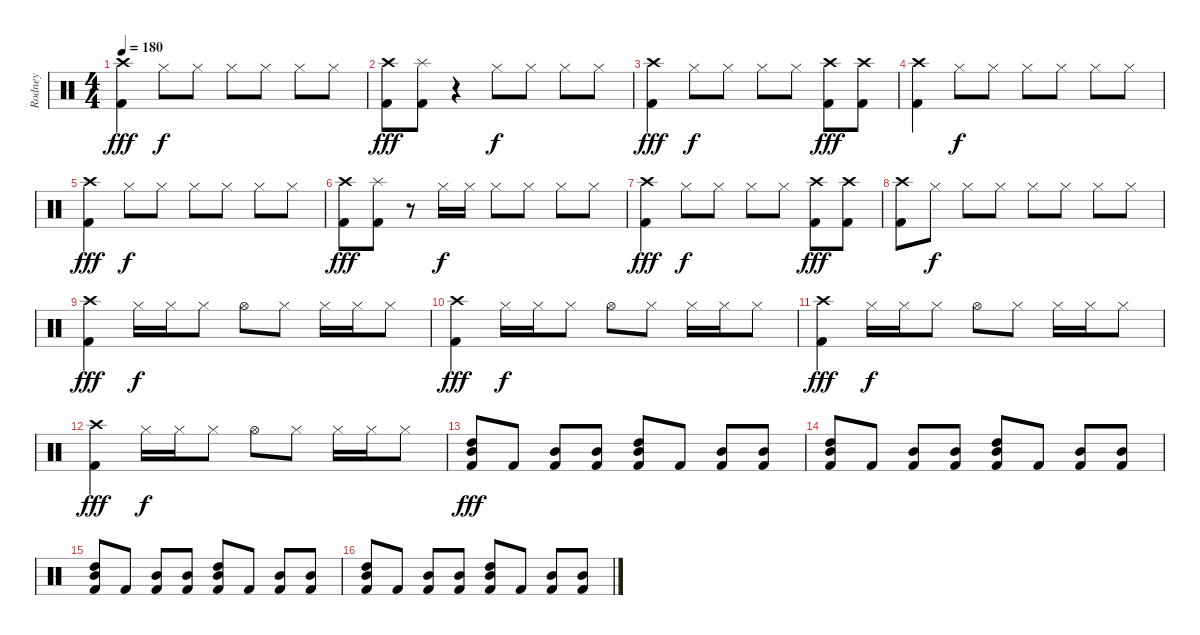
\track ("Rodney" "Rodney") {instrument percussion}
\staff {score}
\articulation defaults
\ts (4 4)
\tempo 180
\clef neutral
\ks c
("Crash high (hit)" "Kick (hit) 2").4{dy fff} "Hi-Hat (closed)".8{dy f} "Hi-Hat (closed)".8 "Hi-Hat (closed)".8 "Hi-Hat (closed)".8 "Hi-Hat (closed)".8 "Hi-Hat (closed)".8 |
("Crash high (hit)" "Kick (hit) 2").8{dy fff} ("Splash (hit)" "Kick (hit) 2").8 r.4 "Hi-Hat (closed)".8{dy f} "Hi-Hat (closed)".8 "Hi-Hat (closed)".8 "Hi-Hat (closed)".8 |
("Crash high (hit)" "Kick (hit) 2").4{dy fff} "Hi-Hat (closed)".8{dy f} "Hi-Hat (closed)".8 "Hi-Hat (closed)".8 "Hi-Hat (closed)".8 ("Crash high (hit)" "Kick (hit) 2").8{dy fff} ("Crash high (hit)" "Kick (hit) 2").8 |
("Crash high (hit)" "Kick (hit) 2").4 "Hi-Hat (closed)".8{dy f} "Hi-Hat (closed)".8 "Hi-Hat (closed)".8 "Hi-Hat (closed)".8 "Hi-Hat (closed)".8 "Hi-Hat (closed)".8 |
("Crash high (hit)" "Kick (hit) 2").4{dy fff} "Hi-Hat (closed)".8{dy f} "Hi-Hat (closed)".8 "Hi-Hat (closed)".8 "Hi-Hat (closed)".8 "Hi-Hat (closed)".8 "Hi-Hat (closed)".8 |
("Crash high (hit)" "Kick (hit) 2").8{dy fff} ("Splash (hit)" "Kick (hit) 2").8 r.8 "Hi-Hat (closed)".16{dy f} "Hi-Hat (closed)".16 "Hi-Hat (closed)".8 "Hi-Hat (closed)".8 "Hi-Hat (closed)".8 "Hi-Hat (closed)".8 |
("Crash high (hit)" "Kick (hit) 2").4{dy fff} "Hi-Hat (closed)".8{dy f} "Hi-Hat (closed)".8 "Hi-Hat (closed)".8 "Hi-Hat (closed)".8 ("Crash high (hit)" "Kick (hit) 2").8{dy fff} ("Crash high (hit)" "Kick (hit) 2").8 |
("Crash high (hit)" "Kick (hit) 2").8 "Hi-Hat (closed)".8{dy f} "Hi-Hat (closed)".8 "Hi-Hat (closed)".8 "Hi-Hat (closed)".8 "Hi-Hat (closed)".8 "Hi-Hat (closed)".8 "Hi-Hat (closed)".8 |
("Crash high (hit)" "Kick (hit) 2").4{dy fff} "Hi-Hat (closed)".16{dy f} "Hi-Hat (closed)".16 "Hi-Hat (closed)".8 "Hi-Hat (open)".8 "Hi-Hat (closed)".8 "Hi-Hat (closed)".16 "Hi-Hat (closed)".16 "Hi-Hat (closed)".8 |
("Crash high (hit)" "Kick (hit) 2").4{dy fff} "Hi-Hat (closed)".16{dy f} "Hi-Hat (closed)".16 "Hi-Hat (closed)".8 "Hi-Hat (open)".8 "Hi-Hat (closed)".8 "Hi-Hat (closed)".16 "Hi-Hat (closed)".16 "Hi-Hat (closed)".8 |
("Crash high (hit)" "Kick (hit) 2").4{dy fff} "Hi-Hat (closed)".16{dy f} "Hi-Hat (closed)".16 "Hi-Hat (closed)".8 "Hi-Hat (open)".8 "Hi-Hat (closed)".8 "Hi-Hat (closed)".16 "Hi-Hat (closed)".16 "Hi-Hat (closed)".8 |
("Crash high (hit)" "Kick (hit) 2").4{dy fff} "Hi-Hat (closed)".16{dy f} "Hi-Hat (closed)".16 "Hi-Hat (closed)".8 "Hi-Hat (open)".8 "Hi-Hat (closed)".8 "Hi-Hat (closed)".16 "Hi-Hat (closed)".16 "Hi-Hat (closed)".8 |
("High Tom (hit)" "Mid Tom (hit)" "Kick (hit) 2").8{dy fff} "Kick (hit) 2".8 ("Mid Tom (hit)" "Kick (hit) 2").8 ("Mid Tom (hit)" "Kick (hit) 2").8 ("High Tom (hit)" "Mid Tom (hit)" "Kick (hit) 2").8 "Kick (hit) 2".8 ("Mid Tom (hit)" "Kick (hit) 2").8 ("Mid Tom (hit)" "Kick (hit) 2").8 |
("High Tom (hit)" "Mid Tom (hit)" "Kick (hit) 2").8 "Kick (hit) 2".8 ("Mid Tom (hit)" "Kick (hit) 2").8 ("Mid Tom (hit)" "Kick (hit) 2").8 ("High Tom (hit)" "Mid Tom (hit)" "Kick (hit) 2").8 "Kick (hit) 2".8 ("Mid Tom (hit)" "Kick (hit) 2").8 ("Mid Tom (hit)" "Kick (hit) 2").8 |
("High Tom (hit)" "Mid Tom (hit)" "Kick (hit) 2").8 "Kick (hit) 2".8 ("Mid Tom (hit)" "Kick (hit) 2").8 ("Mid Tom (hit)" "Kick (hit) 2").8 ("High Tom (hit)" "Mid Tom (hit)" "Kick (hit) 2").8 "Kick (hit) 2".8 ("Mid Tom (hit)" "Kick (hit) 2").8 ("Mid Tom (hit)" "Kick (hit) 2").8 |
("High Tom (hit)" "Mid Tom (hit)" "Kick (hit) 2").8 "Kick (hit) 2".8 ("Mid Tom (hit)" "Kick (hit) 2").8 ("Mid Tom (hit)" "Kick (hit) 2").8 ("High Tom (hit)" "Mid Tom (hit)" "Kick (hit) 2").8 "Kick (hit) 2".8 ("Mid Tom (hit)" "Kick (hit) 2").8 ("Mid Tom (hit)" "Kick (hit) 2").8
